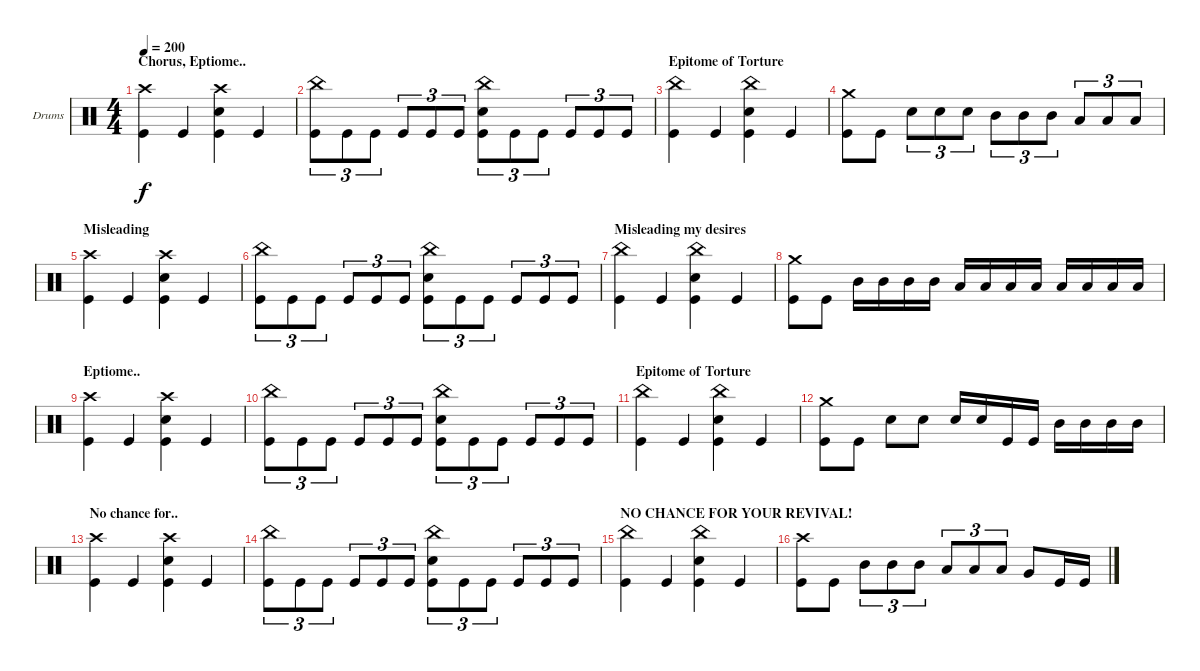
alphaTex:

\defaultSystemsLayout 4
\bracketExtendMode groupsimilarinstruments
\firstSystemTrackNameOrientation horizontal
\otherSystemsTrackNameOrientation horizontal
\track ("Markus Freiwald" "Drums") {instrument percussion}
\staff {score}
\articulation defaults
\ts (4 4)
\section ("" "Chorus, Eptiome..")
\tempo 200
\clef neutral
\ks c
("Crash high (hit)" "Kick (hit)").4{dy f} "Kick (hit)".4 ("Snare (hit) 2" "Crash high (hit)" "Kick (hit)").4 "Kick (hit)".4 |
("China (hit)" "Kick (hit)").8{tu (3 2)} "Kick (hit)".8{tu (3 2)} "Kick (hit)".8{tu (3 2)} "Kick (hit)".8{tu (3 2)} "Kick (hit)".8{tu (3 2)} "Kick (hit)".8{tu (3 2)} ("China (hit)" "Kick (hit)" "Snare (hit) 2").8{tu (3 2)} "Kick (hit)".8{tu (3 2)} "Kick (hit)".8{tu (3 2)} "Kick (hit)".8{tu (3 2)} "Kick (hit)".8{tu (3 2)} "Kick (hit)".8{tu (3 2)} |
\section ("" "Epitome of Torture")
("Kick (hit)" "China (hit)").4 "Kick (hit)".4 ("Snare (hit) 2" "Kick (hit)" "China (hit)").4 "Kick (hit)".4 |
("Crash medium (hit)" "Kick (hit)").8 "Kick (hit)".8 "Snare (hit) 2".8{tu (3 2)} "Snare (hit) 2".8{tu (3 2)} "Snare (hit) 2".8{tu (3 2)} "Mid Tom (hit)".8{tu (3 2)} "Mid Tom (hit)".8{tu (3 2)} "Mid Tom (hit)".8{tu (3 2)} "Low Tom (hit)".8{tu (3 2)} "Low Tom (hit)".8{tu (3 2)} "Low Tom (hit)".8{tu (3 2)} |
\section ("" "Misleading")
("Crash high (hit)" "Kick (hit)").4 "Kick (hit)".4 ("Snare (hit) 2" "Crash high (hit)" "Kick (hit)").4 "Kick (hit)".4 |
("China (hit)" "Kick (hit)").8{tu (3 2)} "Kick (hit)".8{tu (3 2)} "Kick (hit)".8{tu (3 2)} "Kick (hit)".8{tu (3 2)} "Kick (hit)".8{tu (3 2)} "Kick (hit)".8{tu (3 2)} ("China (hit)" "Kick (hit)" "Snare (hit) 2").8{tu (3 2)} "Kick (hit)".8{tu (3 2)} "Kick (hit)".8{tu (3 2)} "Kick (hit)".8{tu (3 2)} "Kick (hit)".8{tu (3 2)} "Kick (hit)".8{tu (3 2)} |
\section ("" "Misleading my desires")
("Kick (hit)" "China (hit)").4 "Kick (hit)".4 ("Snare (hit) 2" "Kick (hit)" "China (hit)").4 "Kick (hit)".4 |
("Crash medium (hit)" "Kick (hit)").8 "Kick (hit)".8 "Mid Tom (hit)".16 "Mid Tom (hit)".16 "Mid Tom (hit)".16 "Mid Tom (hit)".16 "Low Tom (hit)".16 "Low Tom (hit)".16 "Low Tom (hit)".16 "Low Tom (hit)".16 "Low Tom (hit)".16 "Low Tom (hit)".16 "Low Tom (hit)".16 "Low Tom (hit)".16 |
\section ("" "Eptiome..")
("Crash high (hit)" "Kick (hit)").4 "Kick (hit)".4 ("Snare (hit) 2" "Crash high (hit)" "Kick (hit)").4 "Kick (hit)".4 |
("China (hit)" "Kick (hit)").8{tu (3 2)} "Kick (hit)".8{tu (3 2)} "Kick (hit)".8{tu (3 2)} "Kick (hit)".8{tu (3 2)} "Kick (hit)".8{tu (3 2)} "Kick (hit)".8{tu (3 2)} ("China (hit)" "Kick (hit)" "Snare (hit) 2").8{tu (3 2)} "Kick (hit)".8{tu (3 2)} "Kick (hit)".8{tu (3 2)} "Kick (hit)".8{tu (3 2)} "Kick (hit)".8{tu (3 2)} "Kick (hit)".8{tu (3 2)} |
\section ("" "Epitome of Torture")
("Kick (hit)" "China (hit)").4 "Kick (hit)".4 ("Snare (hit) 2" "Kick (hit)" "China (hit)").4 "Kick (hit)".4 |
("Crash medium (hit)" "Kick (hit)").8 "Kick (hit)".8 "Snare (hit) 2".8 "Snare (hit) 2".8 "Snare (hit) 2".16 "Snare (hit) 2".16 "Kick (hit)".16 "Kick (hit)".16 "Mid Tom (hit)".16 "Mid Tom (hit)".16 "Mid Tom (hit)".16 "Mid Tom (hit)".16 |
\section ("" "No chance for..")
("Crash high (hit)" "Kick (hit)").4 "Kick (hit)".4 ("Snare (hit) 2" "Crash high (hit)" "Kick (hit)").4 "Kick (hit)".4 |
("China (hit)" "Kick (hit)").8{tu (3 2)} "Kick (hit)".8{tu (3 2)} "Kick (hit)".8{tu (3 2)} "Kick (hit)".8{tu (3 2)} "Kick (hit)".8{tu (3 2)} "Kick (hit)".8{tu (3 2)} ("China (hit)" "Kick (hit)" "Snare (hit) 2").8{tu (3 2)} "Kick (hit)".8{tu (3 2)} "Kick (hit)".8{tu (3 2)} "Kick (hit)".8{tu (3 2)} "Kick (hit)".8{tu (3 2)} "Kick (hit)".8{tu (3 2)} |
\section ("" "NO CHANCE FOR YOUR REVIVAL!")
("Kick (hit)" "China (hit)").4 "Kick (hit)".4 ("Snare (hit) 2" "Kick (hit)" "China (hit)").4 "Kick (hit)".4 |
("Kick (hit)" "Crash high (hit)").8 "Kick (hit)".8 "Mid Tom (hit)".8{tu (3 2)} "Mid Tom (hit)".8{tu (3 2)} "Mid Tom (hit)".8{tu (3 2)} "Low Tom (hit)".8{tu (3 2)} "Low Tom (hit)".8{tu (3 2)} "Low Tom (hit)".8{tu (3 2)} "Very Low Tom (hit)".8 "Kick (hit)".16 "Kick (hit)".16
